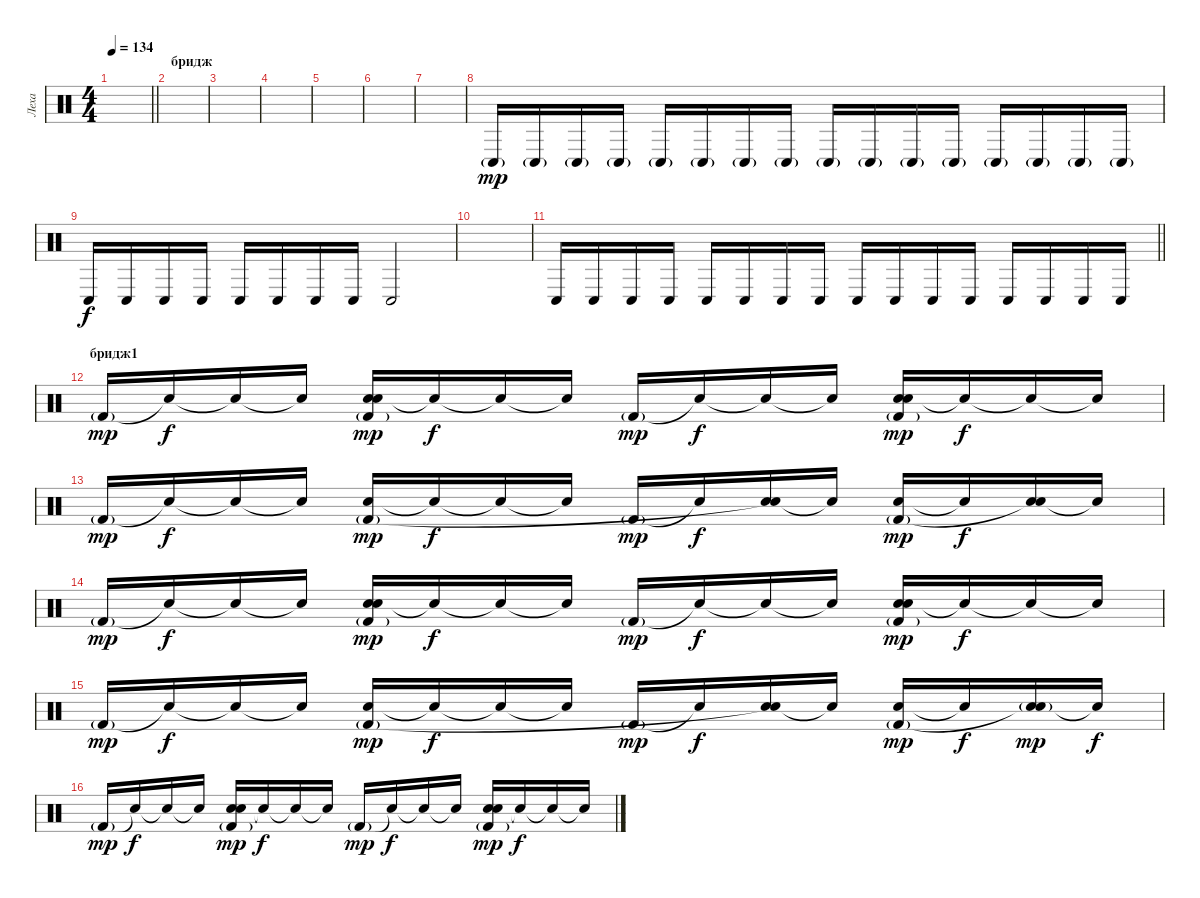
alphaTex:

\track ("Леха" "Леха") {instrument percussion}
\staff {score}
\articulation defaults
\ts (4 4)
\tempo 134
\clef neutral
\barLineRight lightlight
\ks c
|
\section ("" "бридж")
|
|
|
|
|
|
"Conga low (hit)"{g}.16{dy mp} "Conga low (hit)"{g}.16 "Conga low (hit)"{g}.16 "Conga low (hit)"{g}.16 "Conga low (hit)"{g}.16 "Conga low (hit)"{g}.16 "Conga low (hit)"{g}.16 "Conga low (hit)"{g}.16 "Conga low (hit)"{g}.16 "Conga low (hit)"{g}.16 "Conga low (hit)"{g}.16 "Conga low (hit)"{g}.16 "Conga low (hit)"{g}.16 "Conga low (hit)"{g}.16 "Conga low (hit)"{g}.16 "Conga low (hit)"{g}.16 |
"Conga low (hit)".16{dy f} "Conga low (hit)".16 "Conga low (hit)".16 "Conga low (hit)".16 "Conga low (hit)".16 "Conga low (hit)".16 "Conga low (hit)".16 "Conga low (hit)".16 "Conga low (hit)".2 |
|
\barLineRight lightlight "Conga low (hit)".16 "Conga low (hit)".16 "Conga low (hit)".16 "Conga low (hit)".16 "Conga low (hit)".16 "Conga low (hit)".16 "Conga low (hit)".16 "Conga low (hit)".16 "Conga low (hit)".16 "Conga low (hit)".16 "Conga low (hit)".16 "Conga low (hit)".16 "Conga low (hit)".16 "Conga low (hit)".16 "Conga low (hit)".16 "Conga low (hit)".16
|
\section ("" "бридж1")
"Kick (hit) 2"{g}.16{dy mp} "Snare (hit)"{t}.16{dy f} "Snare (hit)"{t}.16 "Snare (hit)"{t}.16 ("Hand Clap (hit)" "Hand Clap (hit)" "Kick (hit) 2"{g}).16{dy mp} "Snare (hit)"{t}.16{dy f} "Snare (hit)"{t}.16 "Snare (hit)"{t}.16 "Kick (hit) 2"{g}.16{dy mp} "Snare (hit)"{t}.16{dy f} "Snare (hit)"{t}.16 "Snare (hit)"{t}.16 ("Hand Clap (hit)" "Hand Clap (hit)" "Kick (hit) 2"{g}).16{dy mp} "Snare (hit)"{t}.16{dy f} "Snare (hit)"{t}.16 "Snare (hit)"{t}.16 |
"Kick (hit) 2"{g}.16{dy mp} "Snare (hit)"{t}.16{dy f} "Snare (hit)"{t}.16 "Snare (hit)"{t}.16 ("Hand Clap (hit)" "Kick (hit) 2"{g}).16{dy mp} "Snare (hit)"{t}.16{dy f} "Snare (hit)"{t}.16 "Snare (hit)"{t}.16 "Kick (hit) 2"{g}.16{dy mp} "Snare (hit)"{t}.16{dy f} ("Hand Clap (hit)" "Snare (hit)"{t}).16 "Snare (hit)"{t}.16 ("Hand Clap (hit)" "Kick (hit) 2"{g}).16{dy mp} "Snare (hit)"{t}.16{dy f} ("Hand Clap (hit)" "Snare (hit)"{t}).16 "Snare (hit)"{t}.16 |
"Kick (hit) 2"{g}.16{dy mp} "Snare (hit)"{t}.16{dy f} "Snare (hit)"{t}.16 "Snare (hit)"{t}.16 ("Hand Clap (hit)" "Hand Clap (hit)" "Kick (hit) 2"{g}).16{dy mp} "Snare (hit)"{t}.16{dy f} "Snare (hit)"{t}.16 "Snare (hit)"{t}.16 "Kick (hit) 2"{g}.16{dy mp} "Snare (hit)"{t}.16{dy f} "Snare (hit)"{t}.16 "Snare (hit)"{t}.16 ("Hand Clap (hit)" "Hand Clap (hit)" "Kick (hit) 2"{g}).16{dy mp} "Snare (hit)"{t}.16{dy f} "Snare (hit)"{t}.16 "Snare (hit)"{t}.16 |
"Kick (hit) 2"{g}.16{dy mp} "Snare (hit)"{t}.16{dy f} "Snare (hit)"{t}.16 "Snare (hit)"{t}.16 ("Hand Clap (hit)" "Kick (hit) 2"{g}).16{dy mp} "Snare (hit)"{t}.16{dy f} "Snare (hit)"{t}.16 "Snare (hit)"{t}.16 "Kick (hit) 2"{g}.16{dy mp} "Snare (hit)"{t}.16{dy f} ("Hand Clap (hit)" "Snare (hit)"{t}).16 "Snare (hit)"{t}.16 ("Hand Clap (hit)" "Kick (hit) 2"{g}).16{dy mp} "Snare (hit)"{t}.16{dy f} ("Hand Clap (hit)"{g} "Snare (hit)"{t}).16{dy mp} "Snare (hit)"{t}.16{dy f} |
"Kick (hit) 2"{g}.16{dy mp} "Snare (hit)"{t}.16{dy f} "Snare (hit)"{t}.16 "Snare (hit)"{t}.16 ("Hand Clap (hit)" "Hand Clap (hit)" "Kick (hit) 2"{g}).16{dy mp} "Snare (hit)"{t}.16{dy f} "Snare (hit)"{t}.16 "Snare (hit)"{t}.16 "Kick (hit) 2"{g}.16{dy mp} "Snare (hit)"{t}.16{dy f} "Snare (hit)"{t}.16 "Snare (hit)"{t}.16 ("Hand Clap (hit)" "Hand Clap (hit)" "Kick (hit) 2"{g}).16{dy mp} "Snare (hit)"{t}.16{dy f} "Snare (hit)"{t}.16 "Snare (hit)"{t}.16
